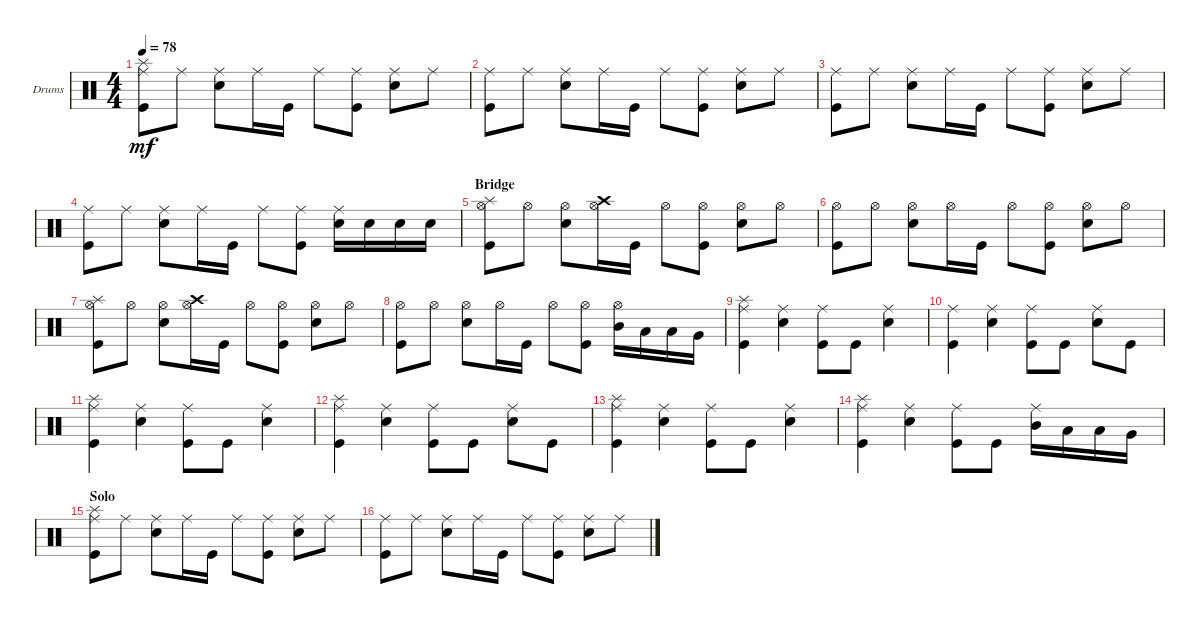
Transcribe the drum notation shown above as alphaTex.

\defaultSystemsLayout 4
\bracketExtendMode groupsimilarinstruments
\firstSystemTrackNameOrientation horizontal
\otherSystemsTrackNameOrientation horizontal
\track ("Drumkit" "Drums") {instrument percussion}
\staff {score}
\articulation defaults
\ts (4 4)
\scale
0.314118
\tempo 78
\accidentals auto
\clef neutral
\ottava regular
\simile none
\ks c
("Kick (hit)" "Splash (hit)" "Ride (middle)").8{dy mf} "Ride (middle)".8 ("Snare (hit) 2" "Ride (middle)").8 "Ride (middle)".16 "Kick (hit)".16 "Ride (middle)".8 ("Kick (hit)" "Ride (middle)").8 ("Snare (hit) 2" "Ride (middle)").8 "Ride (middle)".8 |
\scale
0.243644 ("Kick (hit)" "Ride (middle)").8 "Ride (middle)".8 ("Snare (hit) 2" "Ride (middle)").8 "Ride (middle)".16 "Kick (hit)".16 "Ride (middle)".8 ("Kick (hit)" "Ride (middle)").8 ("Snare (hit) 2" "Ride (middle)").8 "Ride (middle)".8 |
\scale
0.195467 ("Kick (hit)" "Ride (middle)").8 "Ride (middle)".8 ("Snare (hit) 2" "Ride (middle)").8 "Ride (middle)".16 "Kick (hit)".16 "Ride (middle)".8 ("Kick (hit)" "Ride (middle)").8 ("Snare (hit) 2" "Ride (middle)").8 "Ride (middle)".8 |
("Kick (hit)" "Ride (middle)").8 "Ride (middle)".8 ("Snare (hit) 2" "Ride (middle)").8 "Ride (middle)".16 "Kick (hit)".16 "Ride (middle)".8 ("Kick (hit)" "Ride (middle)").8 ("Snare (hit) 2" "Ride (middle)").16 "Snare (hit) 2".16 "Snare (hit) 2".16 "Snare (hit) 2".16 |
\section ("" "Bridge")
("Kick (hit)" "Hi-Hat (open)" "Splash (hit)").8 "Hi-Hat (open)".8 ("Hi-Hat (open)" "Snare (hit) 2").8 ("Hi-Hat (open)" "Crash high (hit)").16 "Kick (hit)".16 "Hi-Hat (open)".8 ("Kick (hit)" "Hi-Hat (open)").8 ("Hi-Hat (open)" "Snare (hit) 2").8 "Hi-Hat (open)".8 |
("Kick (hit)" "Hi-Hat (open)").8 "Hi-Hat (open)".8 ("Hi-Hat (open)" "Snare (hit) 2").8 "Hi-Hat (open)".16 "Kick (hit)".16 "Hi-Hat (open)".8 ("Kick (hit)" "Hi-Hat (open)").8 ("Hi-Hat (open)" "Snare (hit) 2").8 "Hi-Hat (open)".8 |
("Kick (hit)" "Hi-Hat (open)" "Splash (hit)").8 "Hi-Hat (open)".8 ("Hi-Hat (open)" "Snare (hit) 2").8 ("Hi-Hat (open)" "Crash high (hit)").16 "Kick (hit)".16 "Hi-Hat (open)".8 ("Kick (hit)" "Hi-Hat (open)").8 ("Hi-Hat (open)" "Snare (hit) 2").8 "Hi-Hat (open)".8 |
("Kick (hit)" "Hi-Hat (open)").8 "Hi-Hat (open)".8 ("Hi-Hat (open)" "Snare (hit) 2").8 "Hi-Hat (open)".16 "Kick (hit)".16 "Hi-Hat (open)".8 ("Kick (hit)" "Hi-Hat (open)").8 ("Mid Tom (hit)" "Hi-Hat (open)").16 "Low Tom (hit)".16 "Low Tom (hit)".16 "Very Low Tom (hit)".16 |
("Kick (hit)" "Splash (hit)" "Ride (middle)").4 ("Snare (hit) 2" "Ride (middle)").4 ("Ride (middle)" "Kick (hit)").8 "Kick (hit)".8 ("Snare (hit) 2" "Ride (middle)").4 |
("Kick (hit)" "Ride (middle)").4 ("Snare (hit) 2" "Ride (middle)").4 ("Ride (middle)" "Kick (hit)").8 "Kick (hit)".8 ("Snare (hit) 2" "Ride (middle)").8 "Kick (hit)".8 |
("Kick (hit)" "Splash (hit)" "Ride (middle)").4 ("Snare (hit) 2" "Ride (middle)").4 ("Ride (middle)" "Kick (hit)").8 "Kick (hit)".8 ("Snare (hit) 2" "Ride (middle)").4 |
("Kick (hit)" "Splash (hit)" "Ride (middle)").4 ("Snare (hit) 2" "Ride (middle)").4 ("Ride (middle)" "Kick (hit)").8 "Kick (hit)".8 ("Snare (hit) 2" "Ride (middle)").8 "Kick (hit)".8 |
("Kick (hit)" "Splash (hit)" "Ride (middle)").4 ("Snare (hit) 2" "Ride (middle)").4 ("Ride (middle)" "Kick (hit)").8 "Kick (hit)".8 ("Snare (hit) 2" "Ride (middle)").4 |
("Kick (hit)" "Splash (hit)" "Ride (middle)").4 ("Snare (hit) 2" "Ride (middle)").4 ("Ride (middle)" "Kick (hit)").8 "Kick (hit)".8 ("Ride (middle)" "Mid Tom (hit)").16 "Low Tom (hit)".16 "Low Tom (hit)".16 "Very Low Tom (hit)".16 |
\section ("" "Solo")
("Kick (hit)" "Splash (hit)" "Ride (middle)").8 "Ride (middle)".8 ("Snare (hit) 2" "Ride (middle)").8 "Ride (middle)".16 "Kick (hit)".16 "Ride (middle)".8 ("Kick (hit)" "Ride (middle)").8 ("Snare (hit) 2" "Ride (middle)").8 "Ride (middle)".8 |
("Kick (hit)" "Ride (middle)").8 "Ride (middle)".8 ("Snare (hit) 2" "Ride (middle)").8 "Ride (middle)".16 "Kick (hit)".16 "Ride (middle)".8 ("Kick (hit)" "Ride (middle)").8 ("Snare (hit) 2" "Ride (middle)").8 "Ride (middle)".8
